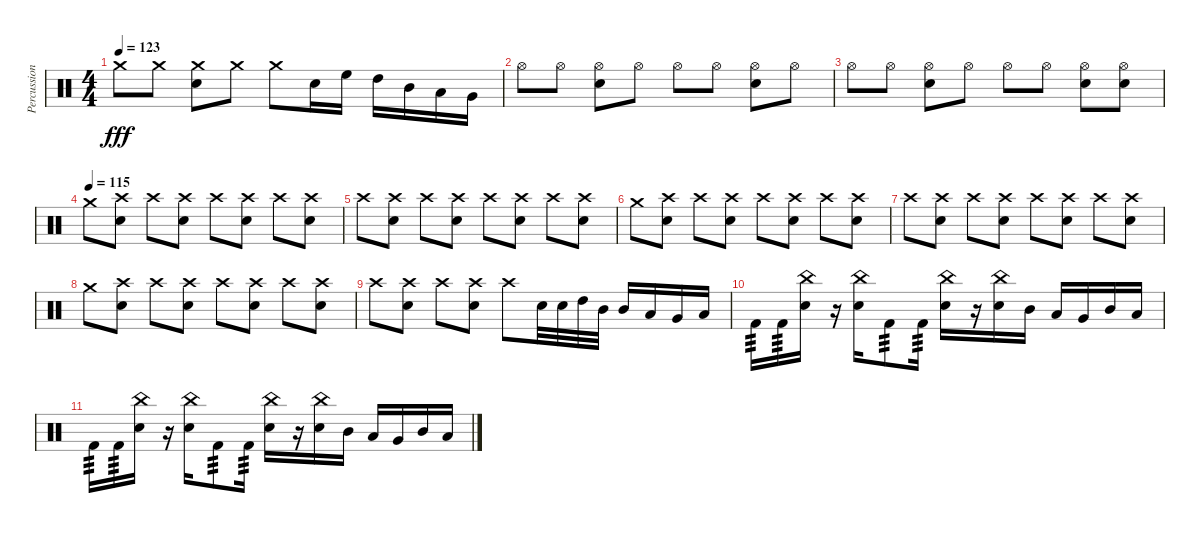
\track ("Percussion" "Percussion") {solo instrument percussion}
\staff {score}
\articulation defaults
\ts (4 4)
\tempo 123
\clef neutral
\ks c "Crash medium (hit)".8{dy fff} "Crash medium (hit)".8
("Crash medium (hit)" "Electric Snare (hit)").8 "Crash medium (hit)".8 "Crash medium (hit)".8 "Electric Snare (hit)".16 "High Floor Tom (hit)".16 "High Tom (hit)".16 "Mid Tom (hit)".16 "Low Tom (hit)".16 "Very Low Tom (hit)".16 |
"Hi-Hat (open)".8 "Hi-Hat (open)".8 ("Hi-Hat (open)" "Electric Snare (hit)").8 "Hi-Hat (open)".8 "Hi-Hat (open)".8 "Hi-Hat (open)".8 ("Hi-Hat (open)" "Electric Snare (hit)").8 "Hi-Hat (open)".8 |
"Hi-Hat (open)".8 "Hi-Hat (open)".8 ("Hi-Hat (open)" "Electric Snare (hit)").8 "Hi-Hat (open)".8 "Hi-Hat (open)".8 "Hi-Hat (open)".8 ("Hi-Hat (open)" "Electric Snare (hit)").8 ("Hi-Hat (open)" "Electric Snare (hit)").8 |
\tempo (115)
"Crash medium (hit)".8 ("Crash high (hit)" "Electric Snare (hit)").8 "Crash high (hit)".8 ("Crash high (hit)" "Electric Snare (hit)").8 "Crash high (hit)".8 ("Crash high (hit)" "Electric Snare (hit)").8 "Crash high (hit)".8 ("Crash high (hit)" "Electric Snare (hit)").8 |
"Crash high (hit)".8 ("Crash high (hit)" "Electric Snare (hit)").8 "Crash high (hit)".8 ("Crash high (hit)" "Electric Snare (hit)").8 "Crash high (hit)".8 ("Crash high (hit)" "Electric Snare (hit)").8 "Crash high (hit)".8 ("Crash high (hit)" "Electric Snare (hit)").8 |
"Crash medium (hit)".8 ("Crash high (hit)" "Electric Snare (hit)").8 "Crash high (hit)".8 ("Crash high (hit)" "Electric Snare (hit)").8 "Crash high (hit)".8 ("Crash high (hit)" "Electric Snare (hit)").8 "Crash high (hit)".8 ("Crash high (hit)" "Electric Snare (hit)").8 |
"Crash high (hit)".8 ("Crash high (hit)" "Electric Snare (hit)").8 "Crash high (hit)".8 ("Crash high (hit)" "Electric Snare (hit)").8 "Crash high (hit)".8 ("Crash high (hit)" "Electric Snare (hit)").8 "Crash high (hit)".8 ("Crash high (hit)" "Electric Snare (hit)").8 |
"Crash medium (hit)".8 ("Crash high (hit)" "Electric Snare (hit)").8 "Crash high (hit)".8 ("Crash high (hit)" "Electric Snare (hit)").8 "Crash high (hit)".8 ("Crash high (hit)" "Electric Snare (hit)").8 "Crash high (hit)".8 ("Crash high (hit)" "Electric Snare (hit)").8 |
"Crash high (hit)".8 ("Crash high (hit)" "Electric Snare (hit)").8 "Crash high (hit)".8 ("Crash high (hit)" "Electric Snare (hit)").8 "Crash high (hit)".8 "Electric Snare (hit)".32 "Electric Snare (hit)".32 "High Tom (hit)".32 "Mid Tom (hit)".32 "Mid Tom (hit)".16 "Low Tom (hit)".16 "Very Low Tom (hit)".16 "Low Floor Tom (hit)".16 |
"Kick (hit) 2".16{tp 3} "Kick (hit) 2".16{tp 3} ("China (hit)" "Electric Snare (hit)").16 r.16 ("China (hit)" "Electric Snare (hit)").16 "Kick (hit) 2".8{tp 3} "Kick (hit) 2".16{tp 3} ("China (hit)" "Electric Snare (hit)").16 r.16 ("China (hit)" "Electric Snare (hit)").16 "Mid Tom (hit)".16 "Low Tom (hit)".16 "Very Low Tom (hit)".16 "Mid Tom (hit)".16 "Low Tom (hit)".16 |
"Kick (hit) 2".16{tp 3} "Kick (hit) 2".16{tp 3} ("China (hit)" "Electric Snare (hit)").16 r.16 ("China (hit)" "Electric Snare (hit)").16 "Kick (hit) 2".8{tp 3} "Kick (hit) 2".16{tp 3} ("China (hit)" "Electric Snare (hit)").16 r.16 ("China (hit)" "Electric Snare (hit)").16 "Mid Tom (hit)".16 "Low Tom (hit)".16 "Very Low Tom (hit)".16 "Mid Tom (hit)".16 "Low Tom (hit)".16
